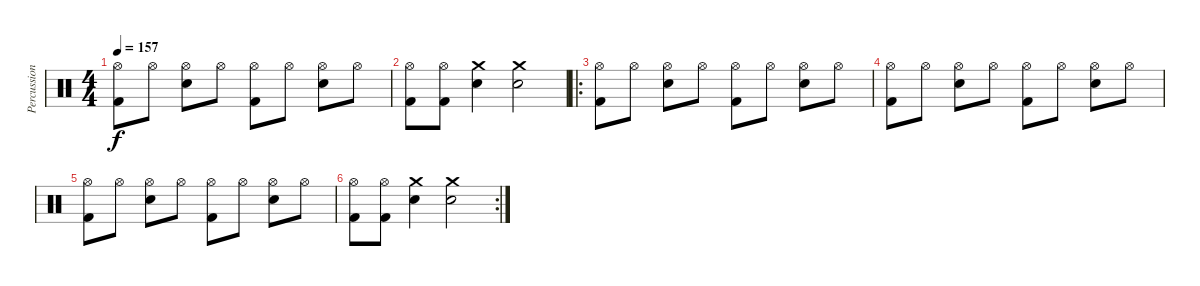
\track ("Percussion" "Percussion") {instrument percussion}
\staff {score}
\articulation defaults
\ts (4 4)
\tempo 157
\clef neutral
\ks c
("Hi-Hat (open)" "Kick (hit) 2").8{dy f} "Hi-Hat (open)".8 ("Hi-Hat (open)" "Snare (hit) 2").8 "Hi-Hat (open)".8 ("Hi-Hat (open)" "Kick (hit) 2").8 "Hi-Hat (open)".8 ("Hi-Hat (open)" "Snare (hit) 2").8 "Hi-Hat (open)".8 |
("Hi-Hat (open)" "Kick (hit) 2").8 ("Hi-Hat (open)" "Kick (hit) 2").8 ("Crash medium (hit)" "Snare (hit) 2").4 ("Crash medium (hit)" "Snare (hit) 2").2 |
\ro
("Hi-Hat (open)" "Kick (hit) 2").8{volume 6} "Hi-Hat (open)".8 ("Hi-Hat (open)" "Snare (hit) 2").8 "Hi-Hat (open)".8 ("Hi-Hat (open)" "Kick (hit) 2").8 "Hi-Hat (open)".8 ("Hi-Hat (open)" "Snare (hit) 2").8 "Hi-Hat (open)".8 |
("Hi-Hat (open)" "Kick (hit) 2").8 "Hi-Hat (open)".8 ("Hi-Hat (open)" "Snare (hit) 2").8 "Hi-Hat (open)".8 ("Hi-Hat (open)" "Kick (hit) 2").8 "Hi-Hat (open)".8 ("Hi-Hat (open)" "Snare (hit) 2").8 "Hi-Hat (open)".8 |
("Hi-Hat (open)" "Kick (hit) 2").8 "Hi-Hat (open)".8 ("Hi-Hat (open)" "Snare (hit) 2").8 "Hi-Hat (open)".8 ("Hi-Hat (open)" "Kick (hit) 2").8 "Hi-Hat (open)".8 ("Hi-Hat (open)" "Snare (hit) 2").8 "Hi-Hat (open)".8 |
\rc 2
("Hi-Hat (open)" "Kick (hit) 2").8 ("Hi-Hat (open)" "Kick (hit) 2").8 ("Crash medium (hit)" "Snare (hit) 2").4 ("Crash medium (hit)" "Snare (hit) 2").2
